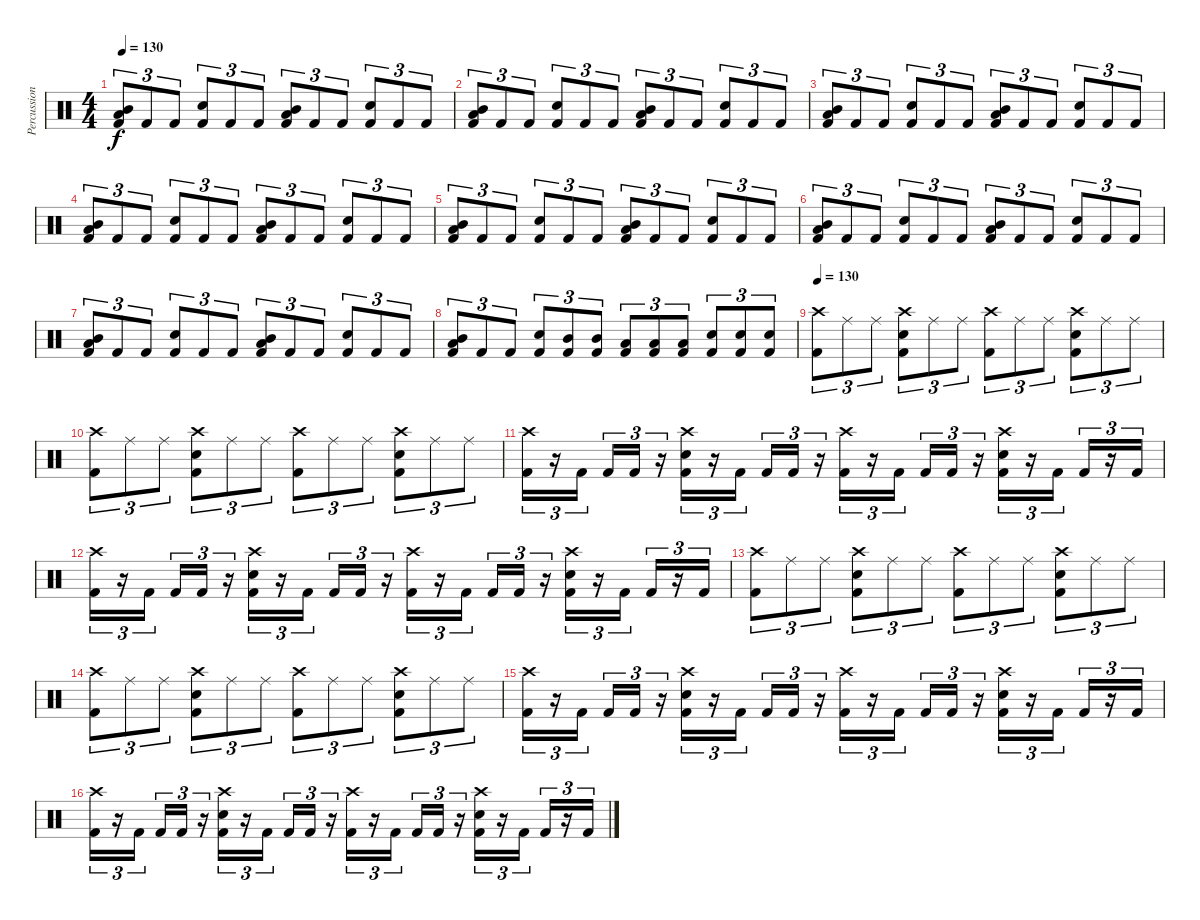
\track ("Percussion" "Percussion") {instrument percussion}
\staff {score}
\articulation defaults
\ts (4 4)
\tempo 130
\clef neutral
\ks c
("Mid Tom (hit)" "Low Tom (hit)" "Kick (hit) 2").8{tu (3 2) dy f} "Kick (hit) 2".8{tu (3 2)} "Kick (hit) 2".8{tu (3 2)} ("Electric Snare (hit)" "Kick (hit) 2").8{tu (3 2)} "Kick (hit) 2".8{tu (3 2)} "Kick (hit) 2".8{tu (3 2)} ("Low Tom (hit)" "Mid Tom (hit)" "Kick (hit) 2").8{tu (3 2)} "Kick (hit) 2".8{tu (3 2)} "Kick (hit) 2".8{tu (3 2)} ("Electric Snare (hit)" "Kick (hit) 2").8{tu (3 2)} "Kick (hit) 2".8{tu (3 2)} "Kick (hit) 2".8{tu (3 2)} |
("Mid Tom (hit)" "Low Tom (hit)" "Kick (hit) 2").8{tu (3 2)} "Kick (hit) 2".8{tu (3 2)} "Kick (hit) 2".8{tu (3 2)} ("Electric Snare (hit)" "Kick (hit) 2").8{tu (3 2)} "Kick (hit) 2".8{tu (3 2)} "Kick (hit) 2".8{tu (3 2)} ("Low Tom (hit)" "Mid Tom (hit)" "Kick (hit) 2").8{tu (3 2)} "Kick (hit) 2".8{tu (3 2)} "Kick (hit) 2".8{tu (3 2)} ("Electric Snare (hit)" "Kick (hit) 2").8{tu (3 2)} "Kick (hit) 2".8{tu (3 2)} "Kick (hit) 2".8{tu (3 2)} |
("Mid Tom (hit)" "Low Tom (hit)" "Kick (hit) 2").8{tu (3 2)} "Kick (hit) 2".8{tu (3 2)} "Kick (hit) 2".8{tu (3 2)} ("Electric Snare (hit)" "Kick (hit) 2").8{tu (3 2)} "Kick (hit) 2".8{tu (3 2)} "Kick (hit) 2".8{tu (3 2)} ("Low Tom (hit)" "Mid Tom (hit)" "Kick (hit) 2").8{tu (3 2)} "Kick (hit) 2".8{tu (3 2)} "Kick (hit) 2".8{tu (3 2)} ("Electric Snare (hit)" "Kick (hit) 2").8{tu (3 2)} "Kick (hit) 2".8{tu (3 2)} "Kick (hit) 2".8{tu (3 2)} |
("Mid Tom (hit)" "Low Tom (hit)" "Kick (hit) 2").8{tu (3 2)} "Kick (hit) 2".8{tu (3 2)} "Kick (hit) 2".8{tu (3 2)} ("Electric Snare (hit)" "Kick (hit) 2").8{tu (3 2)} "Kick (hit) 2".8{tu (3 2)} "Kick (hit) 2".8{tu (3 2)} ("Low Tom (hit)" "Mid Tom (hit)" "Kick (hit) 2").8{tu (3 2)} "Kick (hit) 2".8{tu (3 2)} "Kick (hit) 2".8{tu (3 2)} ("Electric Snare (hit)" "Kick (hit) 2").8{tu (3 2)} "Kick (hit) 2".8{tu (3 2)} "Kick (hit) 2".8{tu (3 2)} |
("Mid Tom (hit)" "Low Tom (hit)" "Kick (hit) 2").8{tu (3 2)} "Kick (hit) 2".8{tu (3 2)} "Kick (hit) 2".8{tu (3 2)} ("Electric Snare (hit)" "Kick (hit) 2").8{tu (3 2)} "Kick (hit) 2".8{tu (3 2)} "Kick (hit) 2".8{tu (3 2)} ("Low Tom (hit)" "Mid Tom (hit)" "Kick (hit) 2").8{tu (3 2)} "Kick (hit) 2".8{tu (3 2)} "Kick (hit) 2".8{tu (3 2)} ("Electric Snare (hit)" "Kick (hit) 2").8{tu (3 2)} "Kick (hit) 2".8{tu (3 2)} "Kick (hit) 2".8{tu (3 2)} |
("Mid Tom (hit)" "Low Tom (hit)" "Kick (hit) 2").8{tu (3 2)} "Kick (hit) 2".8{tu (3 2)} "Kick (hit) 2".8{tu (3 2)} ("Electric Snare (hit)" "Kick (hit) 2").8{tu (3 2)} "Kick (hit) 2".8{tu (3 2)} "Kick (hit) 2".8{tu (3 2)} ("Low Tom (hit)" "Mid Tom (hit)" "Kick (hit) 2").8{tu (3 2)} "Kick (hit) 2".8{tu (3 2)} "Kick (hit) 2".8{tu (3 2)} ("Electric Snare (hit)" "Kick (hit) 2").8{tu (3 2)} "Kick (hit) 2".8{tu (3 2)} "Kick (hit) 2".8{tu (3 2)} |
("Mid Tom (hit)" "Low Tom (hit)" "Kick (hit) 2").8{tu (3 2)} "Kick (hit) 2".8{tu (3 2)} "Kick (hit) 2".8{tu (3 2)} ("Electric Snare (hit)" "Kick (hit) 2").8{tu (3 2)} "Kick (hit) 2".8{tu (3 2)} "Kick (hit) 2".8{tu (3 2)} ("Low Tom (hit)" "Mid Tom (hit)" "Kick (hit) 2").8{tu (3 2)} "Kick (hit) 2".8{tu (3 2)} "Kick (hit) 2".8{tu (3 2)} ("Electric Snare (hit)" "Kick (hit) 2").8{tu (3 2)} "Kick (hit) 2".8{tu (3 2)} "Kick (hit) 2".8{tu (3 2)} |
("Mid Tom (hit)" "Low Tom (hit)" "Kick (hit) 2").8{tu (3 2)} "Kick (hit) 2".8{tu (3 2)} "Kick (hit) 2".8{tu (3 2)} ("Electric Snare (hit)" "Kick (hit) 2").8{tu (3 2)} ("Mid Tom (hit)" "Kick (hit) 2").8{tu (3 2)} ("Mid Tom (hit)" "Kick (hit) 2").8{tu (3 2)} ("Low Tom (hit)" "Kick (hit) 2").8{tu (3 2)} ("Low Tom (hit)" "Kick (hit) 2").8{tu (3 2)} ("Low Tom (hit)" "Kick (hit) 2").8{tu (3 2)} ("Electric Snare (hit)" "Kick (hit) 2").8{tu (3 2)} ("Electric Snare (hit)" "Kick (hit) 2").8{tu (3 2)} ("Electric Snare (hit)" "Kick (hit) 2").8{tu (3 2)} |
\tempo 130
("Crash high (hit)" "Kick (hit) 2").8{tu (3 2)} "Ride (middle)".8{tu (3 2)} "Ride (middle)".8{tu (3 2)} ("Crash high (hit)" "Electric Snare (hit)" "Kick (hit) 2").8{tu (3 2)} "Ride (middle)".8{tu (3 2)} "Ride (middle)".8{tu (3 2)} ("Crash high (hit)" "Kick (hit) 2").8{tu (3 2)} "Ride (middle)".8{tu (3 2)} "Ride (middle)".8{tu (3 2)} ("Crash high (hit)" "Electric Snare (hit)" "Kick (hit) 2").8{tu (3 2)} "Ride (middle)".8{tu (3 2)} "Ride (middle)".8{tu (3 2)} |
("Crash high (hit)" "Kick (hit) 2").8{tu (3 2)} "Ride (middle)".8{tu (3 2)} "Ride (middle)".8{tu (3 2)} ("Crash high (hit)" "Electric Snare (hit)" "Kick (hit) 2").8{tu (3 2)} "Ride (middle)".8{tu (3 2)} "Ride (middle)".8{tu (3 2)} ("Crash high (hit)" "Kick (hit) 2").8{tu (3 2)} "Ride (middle)".8{tu (3 2)} "Ride (middle)".8{tu (3 2)} ("Crash high (hit)" "Electric Snare (hit)" "Kick (hit) 2").8{tu (3 2)} "Ride (middle)".8{tu (3 2)} "Ride (middle)".8{tu (3 2)} |
("Crash high (hit)" "Kick (hit) 2").16{tu (3 2)} r.16{tu (3 2)} "Kick (hit) 2".16{tu (3 2) beam splitsecondary} "Kick (hit) 2".16{tu (3 2)} "Kick (hit) 2".16{tu (3 2)} r.16{tu (3 2)} ("Crash high (hit)" "Electric Snare (hit)" "Kick (hit) 2").16{tu (3 2)} r.16{tu (3 2)} "Kick (hit) 2".16{tu (3 2) beam splitsecondary} "Kick (hit) 2".16{tu (3 2)} "Kick (hit) 2".16{tu (3 2)} r.16{tu (3 2)} ("Crash high (hit)" "Kick (hit) 2").16{tu (3 2)} r.16{tu (3 2)} "Kick (hit) 2".16{tu (3 2) beam splitsecondary} "Kick (hit) 2".16{tu (3 2)} "Kick (hit) 2".16{tu (3 2)} r.16{tu (3 2)} ("Crash high (hit)" "Electric Snare (hit)" "Kick (hit) 2").16{tu (3 2)} r.16{tu (3 2)} "Kick (hit) 2".16{tu (3 2)} "Kick (hit) 2".16{tu (3 2)} r.16{tu (3 2)} "Kick (hit) 2".16{tu (3 2)} |
("Crash high (hit)" "Kick (hit) 2").16{tu (3 2)} r.16{tu (3 2)} "Kick (hit) 2".16{tu (3 2) beam splitsecondary} "Kick (hit) 2".16{tu (3 2)} "Kick (hit) 2".16{tu (3 2)} r.16{tu (3 2)} ("Crash high (hit)" "Electric Snare (hit)" "Kick (hit) 2").16{tu (3 2)} r.16{tu (3 2)} "Kick (hit) 2".16{tu (3 2) beam splitsecondary} "Kick (hit) 2".16{tu (3 2)} "Kick (hit) 2".16{tu (3 2)} r.16{tu (3 2)} ("Crash high (hit)" "Kick (hit) 2").16{tu (3 2)} r.16{tu (3 2)} "Kick (hit) 2".16{tu (3 2) beam splitsecondary} "Kick (hit) 2".16{tu (3 2)} "Kick (hit) 2".16{tu (3 2)} r.16{tu (3 2)} ("Crash high (hit)" "Electric Snare (hit)" "Kick (hit) 2").16{tu (3 2)} r.16{tu (3 2)} "Kick (hit) 2".16{tu (3 2)} "Kick (hit) 2".16{tu (3 2)} r.16{tu (3 2)} "Kick (hit) 2".16{tu (3 2)} |
("Crash high (hit)" "Kick (hit) 2").8{tu (3 2)} "Ride (middle)".8{tu (3 2)} "Ride (middle)".8{tu (3 2)} ("Crash high (hit)" "Electric Snare (hit)" "Kick (hit) 2").8{tu (3 2)} "Ride (middle)".8{tu (3 2)} "Ride (middle)".8{tu (3 2)} ("Crash high (hit)" "Kick (hit) 2").8{tu (3 2)} "Ride (middle)".8{tu (3 2)} "Ride (middle)".8{tu (3 2)} ("Crash high (hit)" "Electric Snare (hit)" "Kick (hit) 2").8{tu (3 2)} "Ride (middle)".8{tu (3 2)} "Ride (middle)".8{tu (3 2)} |
("Crash high (hit)" "Kick (hit) 2").8{tu (3 2)} "Ride (middle)".8{tu (3 2)} "Ride (middle)".8{tu (3 2)} ("Crash high (hit)" "Electric Snare (hit)" "Kick (hit) 2").8{tu (3 2)} "Ride (middle)".8{tu (3 2)} "Ride (middle)".8{tu (3 2)} ("Crash high (hit)" "Kick (hit) 2").8{tu (3 2)} "Ride (middle)".8{tu (3 2)} "Ride (middle)".8{tu (3 2)} ("Crash high (hit)" "Electric Snare (hit)" "Kick (hit) 2").8{tu (3 2)} "Ride (middle)".8{tu (3 2)} "Ride (middle)".8{tu (3 2)} |
("Crash high (hit)" "Kick (hit) 2").16{tu (3 2)} r.16{tu (3 2)} "Kick (hit) 2".16{tu (3 2) beam splitsecondary} "Kick (hit) 2".16{tu (3 2)} "Kick (hit) 2".16{tu (3 2)} r.16{tu (3 2)} ("Crash high (hit)" "Electric Snare (hit)" "Kick (hit) 2").16{tu (3 2)} r.16{tu (3 2)} "Kick (hit) 2".16{tu (3 2) beam splitsecondary} "Kick (hit) 2".16{tu (3 2)} "Kick (hit) 2".16{tu (3 2)} r.16{tu (3 2)} ("Crash high (hit)" "Kick (hit) 2").16{tu (3 2)} r.16{tu (3 2)} "Kick (hit) 2".16{tu (3 2) beam splitsecondary} "Kick (hit) 2".16{tu (3 2)} "Kick (hit) 2".16{tu (3 2)} r.16{tu (3 2)} ("Crash high (hit)" "Electric Snare (hit)" "Kick (hit) 2").16{tu (3 2)} r.16{tu (3 2)} "Kick (hit) 2".16{tu (3 2)} "Kick (hit) 2".16{tu (3 2)} r.16{tu (3 2)} "Kick (hit) 2".16{tu (3 2)} |
("Crash high (hit)" "Kick (hit) 2").16{tu (3 2)} r.16{tu (3 2)} "Kick (hit) 2".16{tu (3 2) beam splitsecondary} "Kick (hit) 2".16{tu (3 2)} "Kick (hit) 2".16{tu (3 2)} r.16{tu (3 2)} ("Crash high (hit)" "Electric Snare (hit)" "Kick (hit) 2").16{tu (3 2)} r.16{tu (3 2)} "Kick (hit) 2".16{tu (3 2) beam splitsecondary} "Kick (hit) 2".16{tu (3 2)} "Kick (hit) 2".16{tu (3 2)} r.16{tu (3 2)} ("Crash high (hit)" "Kick (hit) 2").16{tu (3 2)} r.16{tu (3 2)} "Kick (hit) 2".16{tu (3 2) beam splitsecondary} "Kick (hit) 2".16{tu (3 2)} "Kick (hit) 2".16{tu (3 2)} r.16{tu (3 2)} ("Crash high (hit)" "Electric Snare (hit)" "Kick (hit) 2").16{tu (3 2)} r.16{tu (3 2)} "Kick (hit) 2".16{tu (3 2)} "Kick (hit) 2".16{tu (3 2)} r.16{tu (3 2)} "Kick (hit) 2".16{tu (3 2)}
